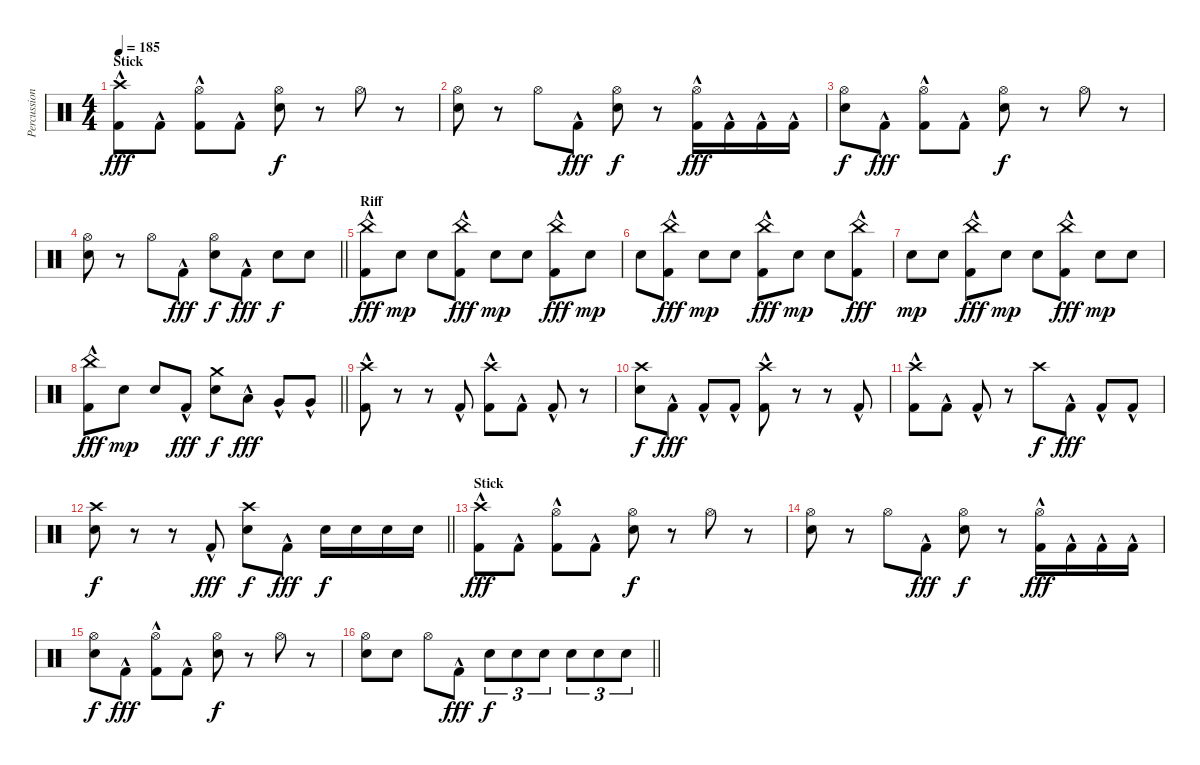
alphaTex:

\track ("Percussion" "Percussion") {instrument percussion}
\staff {score}
\articulation defaults
\ts (4 4)
\section ("" "Stick")
\tempo 185
\clef neutral
\ks c
("Crash high (hit)" "Kick (hit) 2"{hac}).8{dy fff} "Kick (hit) 2"{hac}.8 ("Hi-Hat (open)" "Kick (hit) 2"{hac}).8 "Kick (hit) 2"{hac}.8 ("Hi-Hat (open)" "Snare (hit) 2").8{dy f} r.8 "Hi-Hat (open)".8 r.8 |
("Hi-Hat (open)" "Snare (hit) 2").8 r.8 "Hi-Hat (open)".8 "Kick (hit) 2"{hac}.8{dy fff} ("Hi-Hat (open)" "Snare (hit) 2").8{dy f} r.8 ("Hi-Hat (open)" "Kick (hit) 2"{hac}).16{dy fff} "Kick (hit) 2"{hac}.16 "Kick (hit) 2"{hac}.16 "Kick (hit) 2"{hac}.16 |
("Hi-Hat (open)" "Snare (hit) 2").8{dy f} "Kick (hit) 2"{hac}.8{dy fff} ("Hi-Hat (open)" "Kick (hit) 2"{hac}).8 "Kick (hit) 2"{hac}.8 ("Hi-Hat (open)" "Snare (hit) 2").8{dy f} r.8 "Hi-Hat (open)".8 r.8 |
\barLineRight lightlight
("Hi-Hat (open)" "Snare (hit) 2").8 r.8 "Hi-Hat (open)".8 "Kick (hit) 2"{hac}.8{dy fff} ("Hi-Hat (open)" "Snare (hit) 2").8{dy f} "Kick (hit) 2"{hac}.8{dy fff} "Snare (hit) 2".8{dy f} "Snare (hit) 2".8 |
\section ("" "Riff")
("China (hit)" "Kick (hit) 2"{hac}).8{dy fff} "Snare (hit) 2".8{dy mp} "Snare (hit) 2".8 ("China (hit)" "Kick (hit) 2"{hac}).8{dy fff} "Snare (hit) 2".8{dy mp} "Snare (hit) 2".8 ("China (hit)" "Kick (hit) 2"{hac}).8{dy fff} "Snare (hit) 2".8{dy mp} |
"Snare (hit) 2".8 ("China (hit)" "Kick (hit) 2"{hac}).8{dy fff} "Snare (hit) 2".8{dy mp} "Snare (hit) 2".8 ("China (hit)" "Kick (hit) 2"{hac}).8{dy fff} "Snare (hit) 2".8{dy mp} "Snare (hit) 2".8 ("China (hit)" "Kick (hit) 2"{hac}).8{dy fff} |
"Snare (hit) 2".8{dy mp} "Snare (hit) 2".8 ("China (hit)" "Kick (hit) 2"{hac}).8{dy fff} "Snare (hit) 2".8{dy mp} "Snare (hit) 2".8 ("China (hit)" "Kick (hit) 2"{hac}).8{dy fff} "Snare (hit) 2".8{dy mp} "Snare (hit) 2".8 |
\barLineRight lightlight
("China (hit)" "Kick (hit) 2"{hac}).8{dy fff} "Snare (hit) 2".8{dy mp} "Snare (hit) 2".8 "Kick (hit) 2"{hac}.8{dy fff} ("Crash medium (hit)" "Snare (hit) 2").8{dy f} "Low Tom (hit)"{hac}.8{dy fff} "Very Low Tom (hit)"{hac}.8 "Very Low Tom (hit)"{hac}.8 |
("Crash high (hit)" "Kick (hit) 2"{hac}).8 r.8 r.8 "Kick (hit) 2"{hac}.8 ("Crash high (hit)" "Kick (hit) 2"{hac}).8 "Kick (hit) 2"{hac}.8 "Kick (hit) 2"{hac}.8 r.8 |
("Crash high (hit)" "Snare (hit) 2").8{dy f} "Kick (hit) 2"{hac}.8{dy fff} "Kick (hit) 2"{hac}.8 "Kick (hit) 2"{hac}.8 ("Crash high (hit)" "Kick (hit) 2"{hac}).8 r.8 r.8 "Kick (hit) 2"{hac}.8 |
("Crash high (hit)" "Kick (hit) 2"{hac}).8 "Kick (hit) 2"{hac}.8 "Kick (hit) 2"{hac}.8 r.8 "Crash high (hit)".8{dy f} "Kick (hit) 2"{hac}.8{dy fff} "Kick (hit) 2"{hac}.8 "Kick (hit) 2"{hac}.8 |
\barLineRight lightlight
("Crash high (hit)" "Snare (hit) 2").8{dy f} r.8 r.8 "Kick (hit) 2"{hac}.8{dy fff} ("Crash high (hit)" "Snare (hit) 2").8{dy f} "Kick (hit) 2"{hac}.8{dy fff} "Snare (hit) 2".16{dy f} "Snare (hit) 2".16 "Snare (hit) 2".16 "Snare (hit) 2".16 |
\section ("" "Stick")
("Crash high (hit)" "Kick (hit) 2"{hac}).8{dy fff} "Kick (hit) 2"{hac}.8 ("Hi-Hat (open)" "Kick (hit) 2"{hac}).8 "Kick (hit) 2"{hac}.8 ("Hi-Hat (open)" "Snare (hit) 2").8{dy f} r.8 "Hi-Hat (open)".8 r.8 |
("Hi-Hat (open)" "Snare (hit) 2").8 r.8 "Hi-Hat (open)".8 "Kick (hit) 2"{hac}.8{dy fff} ("Hi-Hat (open)" "Snare (hit) 2").8{dy f} r.8 ("Hi-Hat (open)" "Kick (hit) 2"{hac}).16{dy fff} "Kick (hit) 2"{hac}.16 "Kick (hit) 2"{hac}.16 "Kick (hit) 2"{hac}.16 |
("Hi-Hat (open)" "Snare (hit) 2").8{dy f} "Kick (hit) 2"{hac}.8{dy fff} ("Hi-Hat (open)" "Kick (hit) 2"{hac}).8 "Kick (hit) 2"{hac}.8 ("Hi-Hat (open)" "Snare (hit) 2").8{dy f} r.8 "Hi-Hat (open)".8 r.8 |
\barLineRight lightlight
("Hi-Hat (open)" "Snare (hit) 2").8 "Snare (hit) 2".8 "Hi-Hat (open)".8 "Kick (hit) 2"{hac}.8{dy fff} "Snare (hit) 2".8{tu (3 2) dy f} "Snare (hit) 2".8{tu (3 2)} "Snare (hit) 2".8{tu (3 2)} "Snare (hit) 2".8{tu (3 2)} "Snare (hit) 2".8{tu (3 2)} "Snare (hit) 2".8{tu (3 2)}
